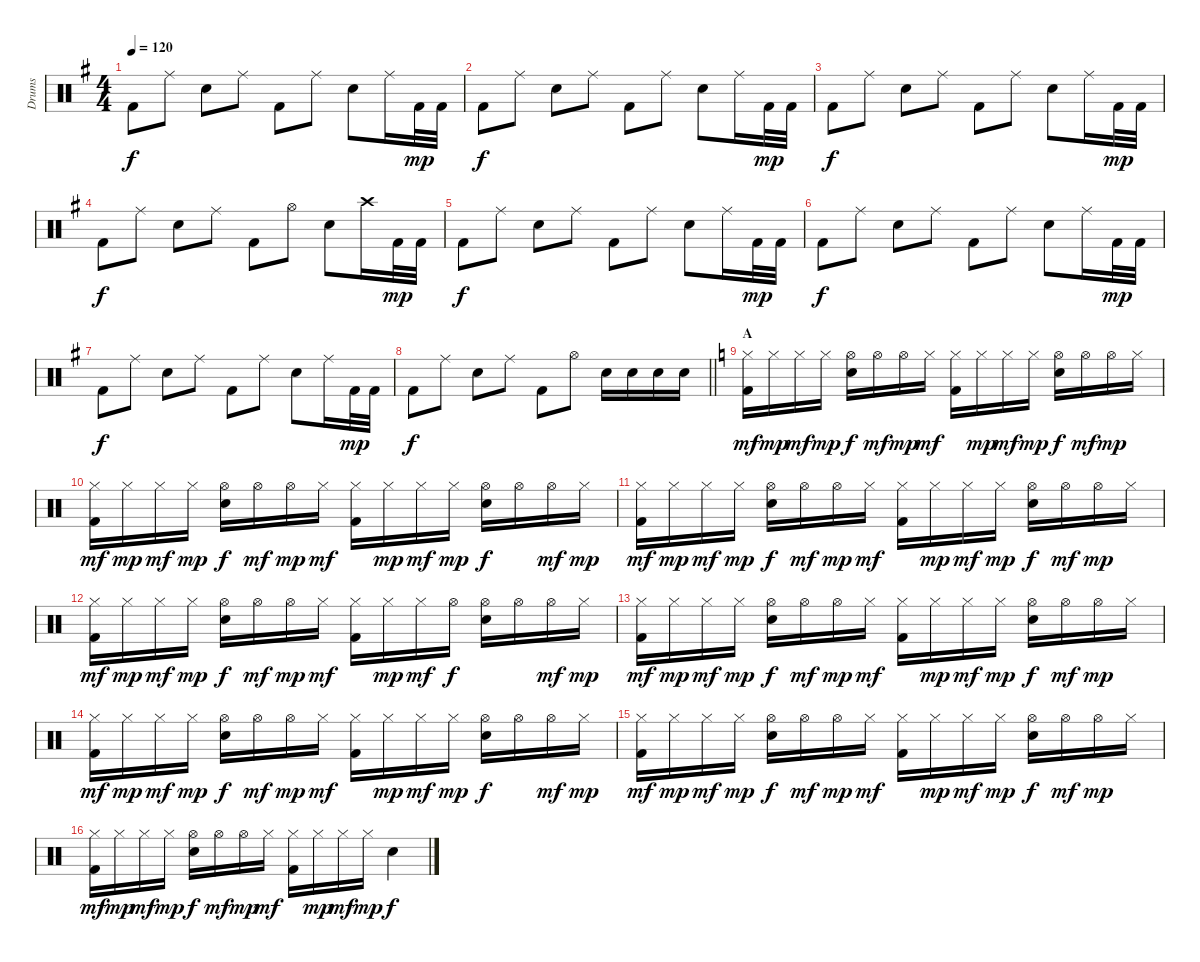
\track ("Drums" "Drums") {instrument percussion}
\staff
\articulation defaults
\ts (4 4)
\tempo 120
\clef neutral
\ks g "Kick (hit) 2".8{dy f} "Ride (middle)".8 "Electric Snare (hit)".8 "Ride (middle)".8 "Kick (hit) 2".8 "Ride (middle)".8 "Electric Snare (hit)".8 "Ride (middle)".16 "Kick (hit) 2".32{dy mp} "Kick (hit) 2".32
|
"Kick (hit) 2".8{dy f} "Ride (middle)".8 "Electric Snare (hit)".8 "Ride (middle)".8 "Kick (hit) 2".8 "Ride (middle)".8 "Electric Snare (hit)".8 "Ride (middle)".16 "Kick (hit) 2".32{dy mp} "Kick (hit) 2".32 |
"Kick (hit) 2".8{dy f} "Ride (middle)".8 "Electric Snare (hit)".8 "Ride (middle)".8 "Kick (hit) 2".8 "Ride (middle)".8 "Electric Snare (hit)".8 "Ride (middle)".16 "Kick (hit) 2".32{dy mp} "Kick (hit) 2".32 |
"Kick (hit) 2".8{dy f} "Ride (middle)".8 "Electric Snare (hit)".8 "Ride (middle)".8 "Kick (hit) 2".8 "Hi-Hat (open)".8 "Electric Snare (hit)".8 "Crash high (hit)".16 "Kick (hit) 2".32{dy mp} "Kick (hit) 2".32 |
"Kick (hit) 2".8{dy f} "Ride (middle)".8 "Electric Snare (hit)".8 "Ride (middle)".8 "Kick (hit) 2".8 "Ride (middle)".8 "Electric Snare (hit)".8 "Ride (middle)".16 "Kick (hit) 2".32{dy mp} "Kick (hit) 2".32 |
"Kick (hit) 2".8{dy f} "Ride (middle)".8 "Electric Snare (hit)".8 "Ride (middle)".8 "Kick (hit) 2".8 "Ride (middle)".8 "Electric Snare (hit)".8 "Ride (middle)".16 "Kick (hit) 2".32{dy mp} "Kick (hit) 2".32 |
"Kick (hit) 2".8{dy f} "Ride (middle)".8 "Electric Snare (hit)".8 "Ride (middle)".8 "Kick (hit) 2".8 "Ride (middle)".8 "Electric Snare (hit)".8 "Ride (middle)".16 "Kick (hit) 2".32{dy mp} "Kick (hit) 2".32 |
\barLineRight lightlight "Kick (hit) 2".8{dy f} "Ride (middle)".8 "Electric Snare (hit)".8 "Ride (middle)".8 "Kick (hit) 2".8 "Hi-Hat (open)".8 "Electric Snare (hit)".16 "Electric Snare (hit)".16 "Electric Snare (hit)".16 "Electric Snare (hit)".16
|
\section ("" "A")
\ks c
("Hi-Hat (closed)" "Kick (hit) 2").16{dy mf} "Hi-Hat (closed)".16{dy mp} "Hi-Hat (closed)".16{dy mf} "Hi-Hat (closed)".16{dy mp} ("Hi-Hat (open)" "Electric Snare (hit)").16{dy f} "Hi-Hat (open)".16{dy mf} "Hi-Hat (open)".16{dy mp} "Hi-Hat (closed)".16{dy mf} ("Hi-Hat (closed)" "Kick (hit) 2").16 "Hi-Hat (closed)".16{dy mp} "Hi-Hat (closed)".16{dy mf} "Hi-Hat (closed)".16{dy mp} ("Hi-Hat (open)" "Electric Snare (hit)").16{dy f} "Hi-Hat (open)".16{dy mf} "Hi-Hat (open)".16{dy mp} "Hi-Hat (closed)".16 |
("Hi-Hat (closed)" "Kick (hit) 2").16{dy mf} "Hi-Hat (closed)".16{dy mp} "Hi-Hat (closed)".16{dy mf} "Hi-Hat (closed)".16{dy mp} ("Hi-Hat (open)" "Electric Snare (hit)").16{dy f} "Hi-Hat (open)".16{dy mf} "Hi-Hat (open)".16{dy mp} "Hi-Hat (closed)".16{dy mf} ("Hi-Hat (closed)" "Kick (hit) 2").16 "Hi-Hat (closed)".16{dy mp} "Hi-Hat (closed)".16{dy mf} "Hi-Hat (closed)".16{dy mp} ("Hi-Hat (open)" "Electric Snare (hit)").16{dy f} "Hi-Hat (open)".16 "Hi-Hat (open)".16{dy mf} "Hi-Hat (closed)".16{dy mp} |
("Hi-Hat (closed)" "Kick (hit) 2").16{dy mf} "Hi-Hat (closed)".16{dy mp} "Hi-Hat (closed)".16{dy mf} "Hi-Hat (closed)".16{dy mp} ("Hi-Hat (open)" "Electric Snare (hit)").16{dy f} "Hi-Hat (open)".16{dy mf} "Hi-Hat (open)".16{dy mp} "Hi-Hat (closed)".16{dy mf} ("Hi-Hat (closed)" "Kick (hit) 2").16 "Hi-Hat (closed)".16{dy mp} "Hi-Hat (closed)".16{dy mf} "Hi-Hat (closed)".16{dy mp} ("Hi-Hat (open)" "Electric Snare (hit)").16{dy f} "Hi-Hat (open)".16{dy mf} "Hi-Hat (open)".16{dy mp} "Hi-Hat (closed)".16 |
("Hi-Hat (closed)" "Kick (hit) 2").16{dy mf} "Hi-Hat (closed)".16{dy mp} "Hi-Hat (closed)".16{dy mf} "Hi-Hat (closed)".16{dy mp} ("Hi-Hat (open)" "Electric Snare (hit)").16{dy f} "Hi-Hat (open)".16{dy mf} "Hi-Hat (open)".16{dy mp} "Hi-Hat (closed)".16{dy mf} ("Hi-Hat (closed)" "Kick (hit) 2").16 "Hi-Hat (closed)".16{dy mp} "Hi-Hat (closed)".16{dy mf} "Hi-Hat (open)".16{dy f} ("Hi-Hat (open)" "Electric Snare (hit)").16 "Hi-Hat (open)".16 "Hi-Hat (open)".16{dy mf} "Hi-Hat (closed)".16{dy mp} |
("Hi-Hat (closed)" "Kick (hit) 2").16{dy mf} "Hi-Hat (closed)".16{dy mp} "Hi-Hat (closed)".16{dy mf} "Hi-Hat (closed)".16{dy mp} ("Hi-Hat (open)" "Electric Snare (hit)").16{dy f} "Hi-Hat (open)".16{dy mf} "Hi-Hat (open)".16{dy mp} "Hi-Hat (closed)".16{dy mf} ("Hi-Hat (closed)" "Kick (hit) 2").16 "Hi-Hat (closed)".16{dy mp} "Hi-Hat (closed)".16{dy mf} "Hi-Hat (closed)".16{dy mp} ("Hi-Hat (open)" "Electric Snare (hit)").16{dy f} "Hi-Hat (open)".16{dy mf} "Hi-Hat (open)".16{dy mp} "Hi-Hat (closed)".16 |
("Hi-Hat (closed)" "Kick (hit) 2").16{dy mf} "Hi-Hat (closed)".16{dy mp} "Hi-Hat (closed)".16{dy mf} "Hi-Hat (closed)".16{dy mp} ("Hi-Hat (open)" "Electric Snare (hit)").16{dy f} "Hi-Hat (open)".16{dy mf} "Hi-Hat (open)".16{dy mp} "Hi-Hat (closed)".16{dy mf} ("Hi-Hat (closed)" "Kick (hit) 2").16 "Hi-Hat (closed)".16{dy mp} "Hi-Hat (closed)".16{dy mf} "Hi-Hat (closed)".16{dy mp} ("Hi-Hat (open)" "Electric Snare (hit)").16{dy f} "Hi-Hat (open)".16 "Hi-Hat (open)".16{dy mf} "Hi-Hat (closed)".16{dy mp} |
("Hi-Hat (closed)" "Kick (hit) 2").16{dy mf} "Hi-Hat (closed)".16{dy mp} "Hi-Hat (closed)".16{dy mf} "Hi-Hat (closed)".16{dy mp} ("Hi-Hat (open)" "Electric Snare (hit)").16{dy f} "Hi-Hat (open)".16{dy mf} "Hi-Hat (open)".16{dy mp} "Hi-Hat (closed)".16{dy mf} ("Hi-Hat (closed)" "Kick (hit) 2").16 "Hi-Hat (closed)".16{dy mp} "Hi-Hat (closed)".16{dy mf} "Hi-Hat (closed)".16{dy mp} ("Hi-Hat (open)" "Electric Snare (hit)").16{dy f} "Hi-Hat (open)".16{dy mf} "Hi-Hat (open)".16{dy mp} "Hi-Hat (closed)".16 |
("Hi-Hat (closed)" "Kick (hit) 2").16{dy mf} "Hi-Hat (closed)".16{dy mp} "Hi-Hat (closed)".16{dy mf} "Hi-Hat (closed)".16{dy mp} ("Hi-Hat (open)" "Electric Snare (hit)").16{dy f} "Hi-Hat (open)".16{dy mf} "Hi-Hat (open)".16{dy mp} "Hi-Hat (closed)".16{dy mf} ("Hi-Hat (closed)" "Kick (hit) 2").16 "Hi-Hat (closed)".16{dy mp} "Hi-Hat (closed)".16{dy mf} "Hi-Hat (closed)".16{dy mp} "Electric Snare (hit)".4{dy f}
